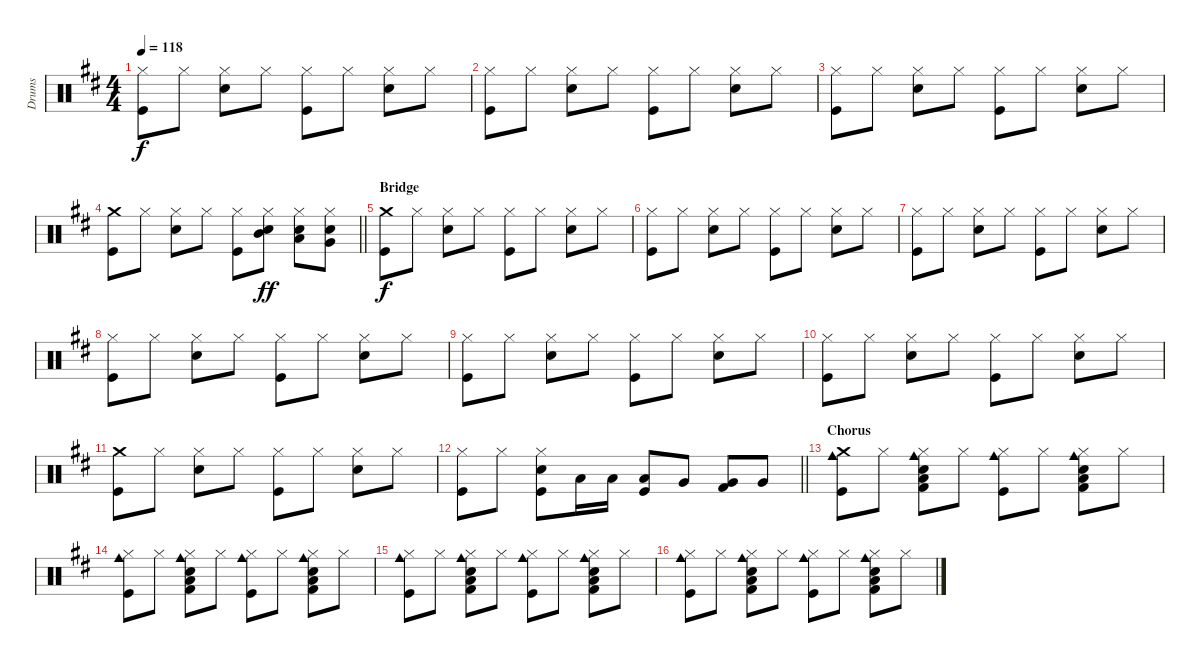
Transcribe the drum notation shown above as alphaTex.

\track ("Drums" "Drums") {instrument percussion}
\staff {score}
\articulation defaults
\ts (4 4)
\tempo 118
\clef neutral
\ks d
("Hi-Hat (closed)" "Kick (hit)").8{dy f} "Hi-Hat (closed)".8 ("Hi-Hat (closed)" "Electric Snare (hit)").8 "Hi-Hat (closed)".8 ("Hi-Hat (closed)" "Kick (hit)").8 "Hi-Hat (closed)".8 ("Hi-Hat (closed)" "Electric Snare (hit)").8 "Hi-Hat (closed)".8 |
("Hi-Hat (closed)" "Kick (hit)").8 "Hi-Hat (closed)".8 ("Hi-Hat (closed)" "Electric Snare (hit)").8 "Hi-Hat (closed)".8 ("Hi-Hat (closed)" "Kick (hit)").8 "Hi-Hat (closed)".8 ("Hi-Hat (closed)" "Electric Snare (hit)").8 "Hi-Hat (closed)".8 |
("Hi-Hat (closed)" "Kick (hit)").8 "Hi-Hat (closed)".8 ("Hi-Hat (closed)" "Electric Snare (hit)").8 "Hi-Hat (closed)".8 ("Hi-Hat (closed)" "Kick (hit)").8 "Hi-Hat (closed)".8 ("Hi-Hat (closed)" "Electric Snare (hit)").8 "Hi-Hat (closed)".8 |
\barLineRight lightlight
("Crash medium (hit)" "Kick (hit)").8 "Hi-Hat (closed)".8 ("Hi-Hat (closed)" "Electric Snare (hit)").8 "Hi-Hat (closed)".8 ("Hi-Hat (closed)" "Kick (hit)").8 ("Hi-Hat (closed)" "Electric Snare (hit)" "Mid Tom (hit)").8{dy ff} ("Hi-Hat (closed)" "Electric Snare (hit)" "Low Tom (hit)").8 ("Hi-Hat (closed)" "Electric Snare (hit)" "Very Low Tom (hit)").8 |
\section ("" "Bridge")
("Crash medium (hit)" "Kick (hit)").8{dy f} "Hi-Hat (closed)".8 ("Hi-Hat (closed)" "Electric Snare (hit)").8 "Hi-Hat (closed)".8 ("Hi-Hat (closed)" "Kick (hit)").8 "Hi-Hat (closed)".8 ("Hi-Hat (closed)" "Electric Snare (hit)").8 "Hi-Hat (closed)".8 |
("Hi-Hat (closed)" "Kick (hit)").8 "Hi-Hat (closed)".8 ("Hi-Hat (closed)" "Electric Snare (hit)").8 "Hi-Hat (closed)".8 ("Hi-Hat (closed)" "Kick (hit)").8 "Hi-Hat (closed)".8 ("Hi-Hat (closed)" "Electric Snare (hit)").8 "Hi-Hat (closed)".8 |
("Hi-Hat (closed)" "Kick (hit)").8 "Hi-Hat (closed)".8 ("Hi-Hat (closed)" "Electric Snare (hit)").8 "Hi-Hat (closed)".8 ("Hi-Hat (closed)" "Kick (hit)").8 "Hi-Hat (closed)".8 ("Hi-Hat (closed)" "Electric Snare (hit)").8 "Hi-Hat (closed)".8 |
("Hi-Hat (closed)" "Kick (hit)").8 "Hi-Hat (closed)".8 ("Hi-Hat (closed)" "Electric Snare (hit)").8 "Hi-Hat (closed)".8 ("Hi-Hat (closed)" "Kick (hit)").8 "Hi-Hat (closed)".8 ("Hi-Hat (closed)" "Electric Snare (hit)").8 "Hi-Hat (closed)".8 |
("Hi-Hat (closed)" "Kick (hit)").8 "Hi-Hat (closed)".8 ("Hi-Hat (closed)" "Electric Snare (hit)").8 "Hi-Hat (closed)".8 ("Hi-Hat (closed)" "Kick (hit)").8 "Hi-Hat (closed)".8 ("Hi-Hat (closed)" "Electric Snare (hit)").8 "Hi-Hat (closed)".8 |
("Hi-Hat (closed)" "Kick (hit)").8 "Hi-Hat (closed)".8 ("Hi-Hat (closed)" "Electric Snare (hit)").8 "Hi-Hat (closed)".8 ("Hi-Hat (closed)" "Kick (hit)").8 "Hi-Hat (closed)".8 ("Hi-Hat (closed)" "Electric Snare (hit)").8 "Hi-Hat (closed)".8 |
("Crash medium (hit)" "Kick (hit)").8 "Hi-Hat (closed)".8 ("Hi-Hat (closed)" "Electric Snare (hit)").8 "Hi-Hat (closed)".8 ("Hi-Hat (closed)" "Kick (hit)").8 "Hi-Hat (closed)".8 ("Hi-Hat (closed)" "Electric Snare (hit)").8 "Hi-Hat (closed)".8 |
\barLineRight lightlight
("Hi-Hat (closed)" "Kick (hit)").8 "Hi-Hat (closed)".8 ("Hi-Hat (closed)" "Electric Snare (hit)" "Kick (hit)").8 "Low Tom (hit)".16 "Low Tom (hit)".16 ("Low Tom (hit)" "Kick (hit)").8 "Very Low Tom (hit)".8 ("Very Low Tom (hit)" "Kick (hit) 2").8 "Very Low Tom (hit)".8 |
\section ("" "Chorus")
("Crash medium (hit)" "Cowbell medium (hit)" "Kick (hit)").8 "Hi-Hat (closed)".8 ("Hi-Hat (closed)" "Electric Snare (hit)" "Low Tom (hit)" "Cowbell medium (hit)" "Kick (hit) 2").8 "Hi-Hat (closed)".8 ("Hi-Hat (closed)" "Cowbell medium (hit)" "Kick (hit)").8 "Hi-Hat (closed)".8 ("Hi-Hat (closed)" "Electric Snare (hit)" "Low Tom (hit)" "Cowbell medium (hit)" "Kick (hit) 2").8 "Hi-Hat (closed)".8 |
("Hi-Hat (closed)" "Cowbell medium (hit)" "Kick (hit)").8 "Hi-Hat (closed)".8 ("Hi-Hat (closed)" "Electric Snare (hit)" "Low Tom (hit)" "Cowbell medium (hit)" "Kick (hit) 2").8 "Hi-Hat (closed)".8 ("Hi-Hat (closed)" "Cowbell medium (hit)" "Kick (hit)").8 "Hi-Hat (closed)".8 ("Hi-Hat (closed)" "Electric Snare (hit)" "Low Tom (hit)" "Cowbell medium (hit)" "Kick (hit) 2").8 "Hi-Hat (closed)".8 |
("Hi-Hat (closed)" "Cowbell medium (hit)" "Kick (hit)").8 "Hi-Hat (closed)".8 ("Hi-Hat (closed)" "Electric Snare (hit)" "Low Tom (hit)" "Cowbell medium (hit)" "Kick (hit) 2").8 "Hi-Hat (closed)".8 ("Hi-Hat (closed)" "Cowbell medium (hit)" "Kick (hit)").8 "Hi-Hat (closed)".8 ("Hi-Hat (closed)" "Electric Snare (hit)" "Low Tom (hit)" "Cowbell medium (hit)" "Kick (hit) 2").8 "Hi-Hat (closed)".8 |
("Hi-Hat (closed)" "Cowbell medium (hit)" "Kick (hit)").8 "Hi-Hat (closed)".8 ("Hi-Hat (closed)" "Electric Snare (hit)" "Low Tom (hit)" "Cowbell medium (hit)" "Kick (hit) 2").8 "Hi-Hat (closed)".8 ("Hi-Hat (closed)" "Cowbell medium (hit)" "Kick (hit)").8 "Hi-Hat (closed)".8 ("Hi-Hat (closed)" "Electric Snare (hit)" "Low Tom (hit)" "Cowbell medium (hit)" "Kick (hit) 2").8 "Hi-Hat (closed)".8
